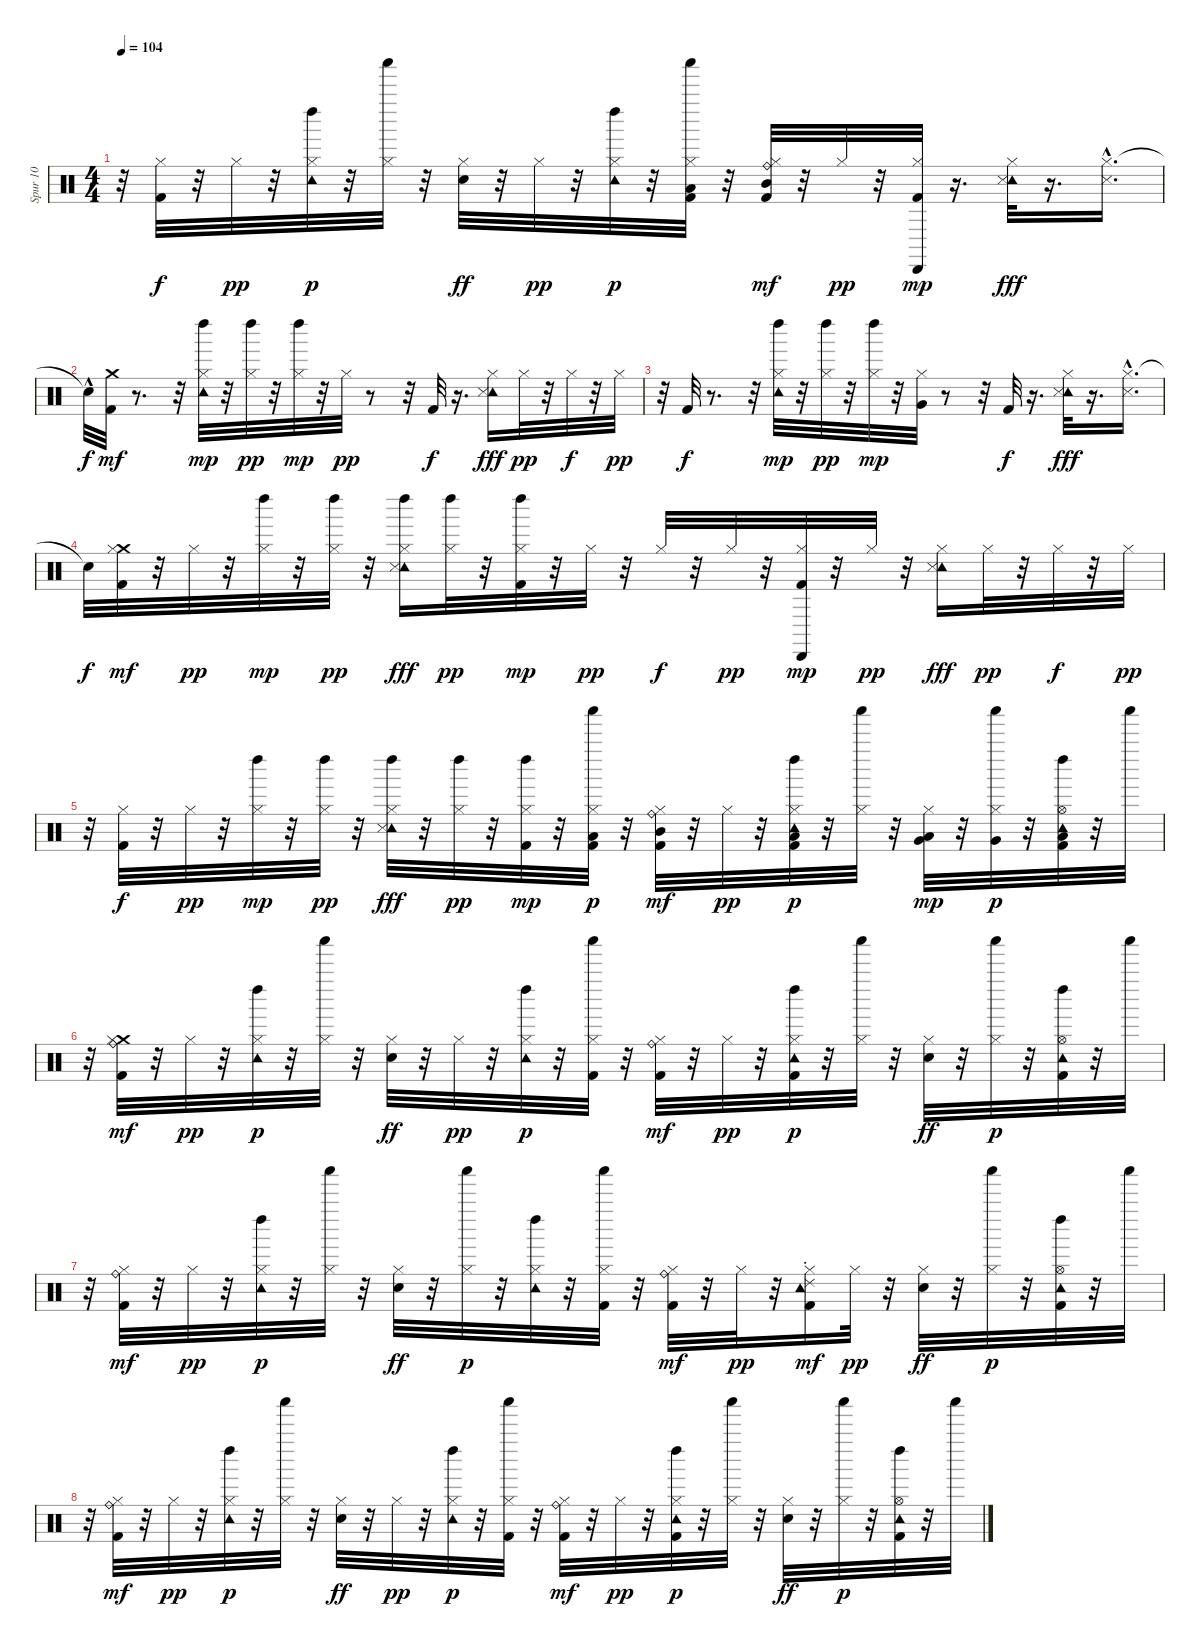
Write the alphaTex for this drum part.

\track ("Spur 10" "Spur 10") {instrument percussion}
\staff {score}
\articulation defaults
\ts (4 4)
\tempo 104
\clef neutral
\ks c
r.32{dy pp} ("Hi-Hat (closed)" "Kick (hit) 2").32{dy f} r.32 "Hi-Hat (closed)".32{dy pp} r.32 ("Hi-Hat (closed)" "Tambourine (hit)" "Left Maraca (hit)").32{dy p} r.32 ("Hi-Hat (closed)" "Shaker (hit)").32 r.32 ("Hi-Hat (closed)" "Snare (hit) 2").32{dy ff} r.32 "Hi-Hat (closed)".32{dy pp} r.32 ("Hi-Hat (closed)" "Tambourine (hit)" "Left Maraca (hit)").32{dy p} r.32 ("Low Floor Tom (hit)" "Hi-Hat (closed)" "Kick (hit) 2" "Shaker (hit)").32 r.32 ("Hi-Hat (closed)" "Mid Tom (hit)" "Ride (bell)" "Kick (hit) 2").32{dy mf} r.32 "Hi-Hat (closed)".32{dy pp} r.32 ("Hi-Hat (closed)" "Cabasa (hit)" "Kick (hit) 2").32{dy mp} r.16{d} ("Hi-Hat (closed)" "Tambourine (hit)" "Snare (side stick) 3").32{dy fff} r.16{d} ("Hi-Hat (closed)" "Snare (side stick) 3"{hac}).16{d} |
"Snare (hit)"{hac t}.32{dy f} ("Crash medium (hit)" "Kick (hit) 2").32{dy mf} r.8{d} r.32 ("Hi-Hat (closed)" "Tambourine (hit)" "Left Maraca (hit)").32{dy mp} r.32 ("Hi-Hat (closed)" "Left Maraca (hit)").32{dy pp} r.32 ("Hi-Hat (closed)" "Left Maraca (hit)").32{dy mp} r.32 "Hi-Hat (closed)".32{dy pp} r.8 r.32 "Kick (hit) 2".32{dy f} r.16{d} ("Hi-Hat (closed)" "Tambourine (hit)" "Snare (side stick) 3").16{dy fff} "Hi-Hat (closed)".32{dy pp} r.32 "Hi-Hat (closed)".32{dy f} r.32 "Hi-Hat (closed)".32{dy pp} |
r.32 "Kick (hit) 2".32{dy f} r.8{d} r.32 ("Hi-Hat (closed)" "Tambourine (hit)" "Left Maraca (hit)").32{dy mp} r.32 ("Hi-Hat (closed)" "Left Maraca (hit)").32{dy pp} r.32 ("Hi-Hat (closed)" "Left Maraca (hit)").32{dy mp} r.32 ("Hi-Hat (closed)" "Very Low Tom (hit)").32 r.8 r.32 "Kick (hit) 2".32{dy f} r.16{d} ("Hi-Hat (closed)" "Tambourine (hit)" "Snare (side stick) 3").32{dy fff} r.16{d} ("Hi-Hat (closed)" "Snare (side stick) 3"{hac}).16{d} |
"Snare (hit)"{t}.32{dy f} ("Crash medium (hit)" "Hi-Hat (closed)" "Kick (hit) 2").32{dy mf} r.32 "Hi-Hat (closed)".32{dy pp} r.32 ("Hi-Hat (closed)" "Left Maraca (hit)").32{dy mp} r.32 ("Hi-Hat (closed)" "Left Maraca (hit)").32{dy pp} r.32 ("Hi-Hat (closed)" "Tambourine (hit)" "Left Maraca (hit)" "Snare (side stick) 3").16{dy fff} ("Hi-Hat (closed)" "Left Maraca (hit)").32{dy pp} r.32 ("Hi-Hat (closed)" "Left Maraca (hit)" "Kick (hit) 2").32{dy mp} r.32 "Hi-Hat (closed)".32{dy pp} r.32 "Hi-Hat (closed)".32{dy f} r.32 "Hi-Hat (closed)".32{dy pp} r.32 ("Hi-Hat (closed)" "Cabasa (hit)" "Kick (hit) 2").32{dy mp} r.32 "Hi-Hat (closed)".32{dy pp} r.32 ("Hi-Hat (closed)" "Tambourine (hit)" "Snare (side stick) 3").16{dy fff} "Hi-Hat (closed)".32{dy pp} r.32 "Hi-Hat (closed)".32{dy f} r.32 "Hi-Hat (closed)".32{dy pp} |
r.32 ("Hi-Hat (closed)" "Kick (hit) 2").32{dy f} r.32 "Hi-Hat (closed)".32{dy pp} r.32 ("Hi-Hat (closed)" "Left Maraca (hit)").32{dy mp} r.32 ("Hi-Hat (closed)" "Left Maraca (hit)").32{dy pp} r.32 ("Hi-Hat (closed)" "Tambourine (hit)" "Left Maraca (hit)" "Snare (side stick) 3").32{dy fff} r.32 ("Hi-Hat (closed)" "Left Maraca (hit)").32{dy pp} r.32 ("Hi-Hat (closed)" "Left Maraca (hit)" "Kick (hit) 2").32{dy mp} r.32 ("Low Floor Tom (hit)" "Hi-Hat (closed)" "Kick (hit) 2" "Shaker (hit)").32{dy p} r.32 ("Hi-Hat (closed)" "Mid Tom (hit)" "Ride (bell)" "Kick (hit) 2").32{dy mf} r.32 "Hi-Hat (closed)".32{dy pp} r.32 ("Hi-Hat (closed)" "Low Tom (hit)" "Tambourine (hit)" "Kick (hit) 2" "Left Maraca (hit)").32{dy p} r.32 ("Hi-Hat (closed)" "Shaker (hit)").32 r.32 ("Hi-Hat (closed)" "Very Low Tom (hit)" "Low Tom (hit)").32{dy mp} r.32 ("Hi-Hat (closed)" "Very Low Tom (hit)" "Shaker (hit)").32{dy p} r.32 ("Low Floor Tom (hit)" "Hi-Hat (open)" "Tambourine (hit)" "Kick (hit) 2" "Left Maraca (hit)").32 r.32 "Shaker (hit)".32 |
r.32 ("Crash medium (hit)" "Hi-Hat (closed)" "Ride (bell)" "Kick (hit) 2").32{dy mf} r.32 "Hi-Hat (closed)".32{dy pp} r.32 ("Hi-Hat (closed)" "Tambourine (hit)" "Left Maraca (hit)").32{dy p} r.32 ("Hi-Hat (closed)" "Shaker (hit)").32 r.32 ("Hi-Hat (closed)" "Snare (hit) 2").32{dy ff} r.32 "Hi-Hat (closed)".32{dy pp} r.32 ("Hi-Hat (closed)" "Tambourine (hit)" "Left Maraca (hit)").32{dy p} r.32 ("Hi-Hat (closed)" "Kick (hit) 2" "Shaker (hit)").32 r.32 ("Hi-Hat (closed)" "Ride (bell)" "Kick (hit) 2").32{dy mf} r.32 "Hi-Hat (closed)".32{dy pp} r.32 ("Hi-Hat (closed)" "Tambourine (hit)" "Kick (hit) 2" "Left Maraca (hit)").32{dy p} r.32 ("Hi-Hat (closed)" "Shaker (hit)").32 r.32 ("Hi-Hat (closed)" "Snare (hit) 2").32{dy ff} r.32 ("Hi-Hat (closed)" "Shaker (hit)").32{dy p} r.32 ("Hi-Hat (open)" "Tambourine (hit)" "Kick (hit) 2" "Left Maraca (hit)").32 r.32 "Shaker (hit)".32 |
r.32 ("Hi-Hat (closed)" "Ride (bell)" "Kick (hit) 2").32{dy mf} r.32 "Hi-Hat (closed)".32{dy pp} r.32 ("Hi-Hat (closed)" "Tambourine (hit)" "Left Maraca (hit)").32{dy p} r.32 ("Hi-Hat (closed)" "Shaker (hit)").32 r.32 ("Hi-Hat (closed)" "Snare (hit) 2").32{dy ff} r.32 ("Hi-Hat (closed)" "Shaker (hit)").32{dy p} r.32 ("Hi-Hat (closed)" "Tambourine (hit)" "Left Maraca (hit)").32 r.32 ("Hi-Hat (closed)" "Kick (hit) 2" "Shaker (hit)").32 r.32 ("Hi-Hat (closed)" "Ride (bell)" "Kick (hit) 2").32{dy mf} r.32 "Hi-Hat (closed)".32{dy pp} r.32 ("Ride (choke) 2" "Hi-Hat (closed)" "Tambourine (hit)" "Kick (hit) 2").16{dy mf} "Hi-Hat (closed)".32{dy pp} r.32 ("Hi-Hat (closed)" "Snare (hit) 2").32{dy ff} r.32 ("Hi-Hat (closed)" "Shaker (hit)").32{dy p} r.32 ("Hi-Hat (open)" "Tambourine (hit)" "Kick (hit) 2" "Left Maraca (hit)").32 r.32 "Shaker (hit)".32 |
r.32 ("Hi-Hat (closed)" "Ride (bell)" "Kick (hit) 2").32{dy mf} r.32 "Hi-Hat (closed)".32{dy pp} r.32 ("Hi-Hat (closed)" "Tambourine (hit)" "Left Maraca (hit)").32{dy p} r.32 ("Hi-Hat (closed)" "Shaker (hit)").32 r.32 ("Hi-Hat (closed)" "Snare (hit) 2").32{dy ff} r.32 "Hi-Hat (closed)".32{dy pp} r.32 ("Hi-Hat (closed)" "Tambourine (hit)" "Left Maraca (hit)").32{dy p} r.32 ("Hi-Hat (closed)" "Kick (hit) 2" "Shaker (hit)").32 r.32 ("Hi-Hat (closed)" "Ride (bell)" "Kick (hit) 2").32{dy mf} r.32 "Hi-Hat (closed)".32{dy pp} r.32 ("Hi-Hat (closed)" "Tambourine (hit)" "Kick (hit) 2" "Left Maraca (hit)").32{dy p} r.32 ("Hi-Hat (closed)" "Shaker (hit)").32 r.32 ("Hi-Hat (closed)" "Snare (hit) 2").32{dy ff} r.32 ("Hi-Hat (closed)" "Shaker (hit)").32{dy p} r.32 ("Hi-Hat (open)" "Tambourine (hit)" "Kick (hit) 2" "Left Maraca (hit)").32 r.32 "Shaker (hit)".32
